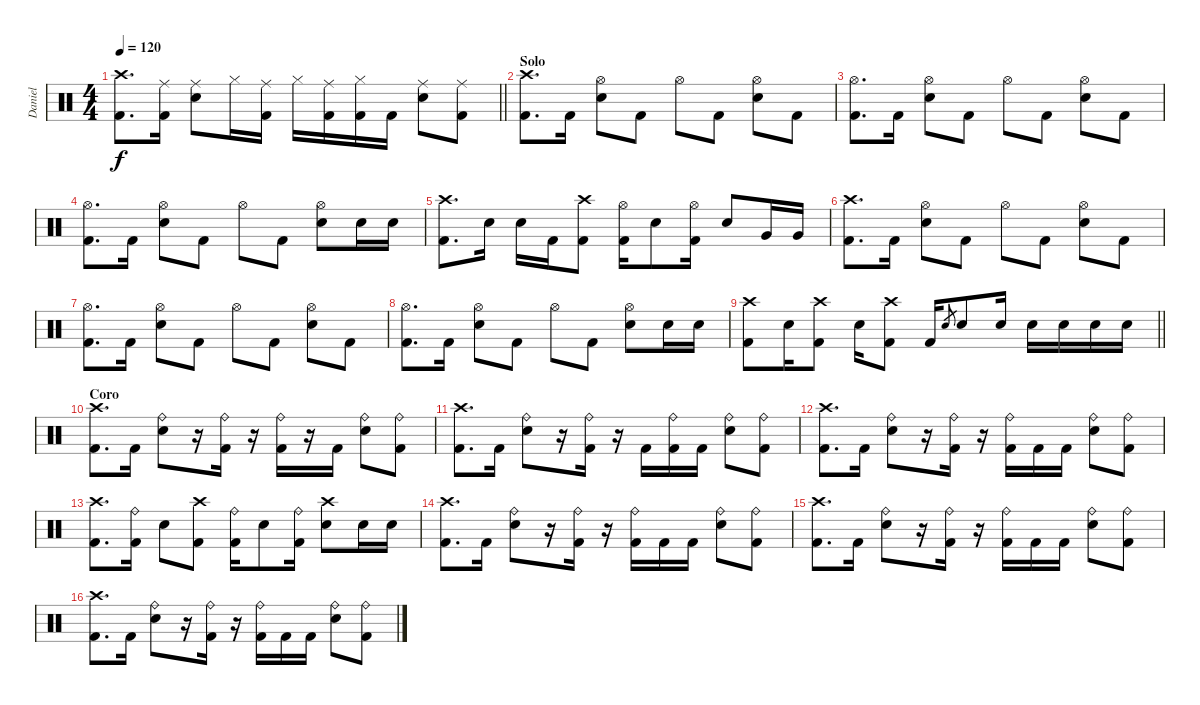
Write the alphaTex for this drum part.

\track ("Daniel" "Daniel") {instrument percussion}
\staff {score}
\articulation defaults
\ts (4 4)
\tempo 120
\clef neutral
\barLineRight lightlight
\ks c
("Crash high (hit)" "Kick (hit) 2").8{d dy f} ("Ride (middle)" "Kick (hit) 2").16 ("Ride (middle)" "Snare (hit) 2").8 "Hi-Hat (closed)".16 ("Ride (middle)" "Kick (hit) 2").16 "Hi-Hat (closed)".16 ("Ride (middle)" "Kick (hit) 2").16 ("Hi-Hat (closed)" "Kick (hit) 2").16 "Kick (hit) 2".16 ("Ride (middle)" "Snare (hit) 2").8 ("Ride (middle)" "Kick (hit) 2").8 |
\section ("" "Solo")
("Crash high (hit)" "Kick (hit) 2").8{d} "Kick (hit) 2".16 ("Hi-Hat (open)" "Snare (hit) 2").8 "Kick (hit) 2".8 "Hi-Hat (open)".8 "Kick (hit) 2".8 ("Hi-Hat (open)" "Snare (hit) 2").8 "Kick (hit) 2".8 |
("Hi-Hat (open)" "Kick (hit) 2").8{d} "Kick (hit) 2".16 ("Hi-Hat (open)" "Snare (hit) 2").8 "Kick (hit) 2".8 "Hi-Hat (open)".8 "Kick (hit) 2".8 ("Hi-Hat (open)" "Snare (hit) 2").8 "Kick (hit) 2".8 |
("Hi-Hat (open)" "Kick (hit) 2").8{d} "Kick (hit) 2".16 ("Hi-Hat (open)" "Snare (hit) 2").8 "Kick (hit) 2".8 "Hi-Hat (open)".8 "Kick (hit) 2".8 ("Hi-Hat (open)" "Snare (hit) 2").8 "Snare (hit) 2".16 "Snare (hit) 2".16 |
("Crash high (hit)" "Kick (hit) 2").8{d} "Snare (hit) 2".16 "Snare (hit) 2".16 "Kick (hit) 2".16 ("Crash high (hit)" "Kick (hit) 2").8 ("Hi-Hat (open)" "Kick (hit) 2").16 "Snare (hit) 2".8 ("Hi-Hat (open)" "Kick (hit) 2").16 "Snare (hit) 2".8 "Very Low Tom (hit)".16 "Very Low Tom (hit)".16 |
("Crash high (hit)" "Kick (hit) 2").8{d} "Kick (hit) 2".16 ("Hi-Hat (open)" "Snare (hit) 2").8 "Kick (hit) 2".8 "Hi-Hat (open)".8 "Kick (hit) 2".8 ("Hi-Hat (open)" "Snare (hit) 2").8 "Kick (hit) 2".8 |
("Hi-Hat (open)" "Kick (hit) 2").8{d} "Kick (hit) 2".16 ("Hi-Hat (open)" "Snare (hit) 2").8 "Kick (hit) 2".8 "Hi-Hat (open)".8 "Kick (hit) 2".8 ("Hi-Hat (open)" "Snare (hit) 2").8 "Kick (hit) 2".8 |
("Hi-Hat (open)" "Kick (hit) 2").8{d} "Kick (hit) 2".16 ("Hi-Hat (open)" "Snare (hit) 2").8 "Kick (hit) 2".8 "Hi-Hat (open)".8 "Kick (hit) 2".8 ("Hi-Hat (open)" "Snare (hit) 2").8 "Snare (hit) 2".16 "Snare (hit) 2".16 |
\barLineRight lightlight
("Crash high (hit)" "Kick (hit) 2").8 "Snare (hit) 2".16 ("Crash high (hit)" "Kick (hit) 2").8 "Snare (hit) 2".16 ("Crash high (hit)" "Kick (hit) 2").8 "Kick (hit) 2".16 "Snare (hit) 2".8{gr} "Snare (hit) 2".8 "Snare (hit) 2".16 "Snare (hit) 2".16 "Snare (hit) 2".16 "Snare (hit) 2".16 "Snare (hit) 2".16 |
\section ("" "Coro")
("Crash high (hit)" "Kick (hit) 2").8{d} "Kick (hit) 2".16 ("Ride (bell)" "Snare (hit) 2").8 r.16 ("Ride (bell)" "Kick (hit) 2").16 r.16 ("Ride (bell)" "Kick (hit) 2").16 r.16 "Kick (hit) 2".16 ("Ride (bell)" "Snare (hit) 2").8 ("Ride (bell)" "Kick (hit) 2").8 |
("Crash high (hit)" "Kick (hit) 2").8{d} "Kick (hit) 2".16 ("Ride (bell)" "Snare (hit) 2").8 r.16 ("Ride (bell)" "Kick (hit) 2").16 r.16 "Kick (hit) 2".16 ("Ride (bell)" "Kick (hit) 2").16 "Kick (hit) 2".16 ("Ride (bell)" "Snare (hit) 2").8 ("Ride (bell)" "Kick (hit) 2").8 |
("Crash high (hit)" "Kick (hit) 2").8{d} "Kick (hit) 2".16 ("Ride (bell)" "Snare (hit) 2").8 r.16 ("Ride (bell)" "Kick (hit) 2").16 r.16 ("Ride (bell)" "Kick (hit) 2").16 "Kick (hit) 2".16 "Kick (hit) 2".16 ("Ride (bell)" "Snare (hit) 2").8 ("Ride (bell)" "Kick (hit) 2").8 |
("Crash high (hit)" "Kick (hit) 2").8{d} ("Ride (bell)" "Kick (hit) 2").16 "Snare (hit) 2".8 ("Crash high (hit)" "Kick (hit) 2").8 ("Ride (bell)" "Kick (hit) 2").16 "Snare (hit) 2".8 ("Ride (bell)" "Kick (hit) 2").16 ("Crash high (hit)" "Snare (hit) 2").8 "Snare (hit) 2".16 "Snare (hit) 2".16 |
("Crash high (hit)" "Kick (hit) 2").8{d} "Kick (hit) 2".16 ("Ride (bell)" "Snare (hit) 2").8 r.16 ("Ride (bell)" "Kick (hit) 2").16 r.16 ("Ride (bell)" "Kick (hit) 2").16 "Kick (hit) 2".16 "Kick (hit) 2".16 ("Ride (bell)" "Snare (hit) 2").8 ("Ride (bell)" "Kick (hit) 2").8 |
("Crash high (hit)" "Kick (hit) 2").8{d} "Kick (hit) 2".16 ("Ride (bell)" "Snare (hit) 2").8 r.16 ("Ride (bell)" "Kick (hit) 2").16 r.16 ("Ride (bell)" "Kick (hit) 2").16 "Kick (hit) 2".16 "Kick (hit) 2".16 ("Ride (bell)" "Snare (hit) 2").8 ("Ride (bell)" "Kick (hit) 2").8 |
("Crash high (hit)" "Kick (hit) 2").8{d} "Kick (hit) 2".16 ("Ride (bell)" "Snare (hit) 2").8 r.16 ("Ride (bell)" "Kick (hit) 2").16 r.16 ("Ride (bell)" "Kick (hit) 2").16 "Kick (hit) 2".16 "Kick (hit) 2".16 ("Ride (bell)" "Snare (hit) 2").8 ("Ride (bell)" "Kick (hit) 2").8
